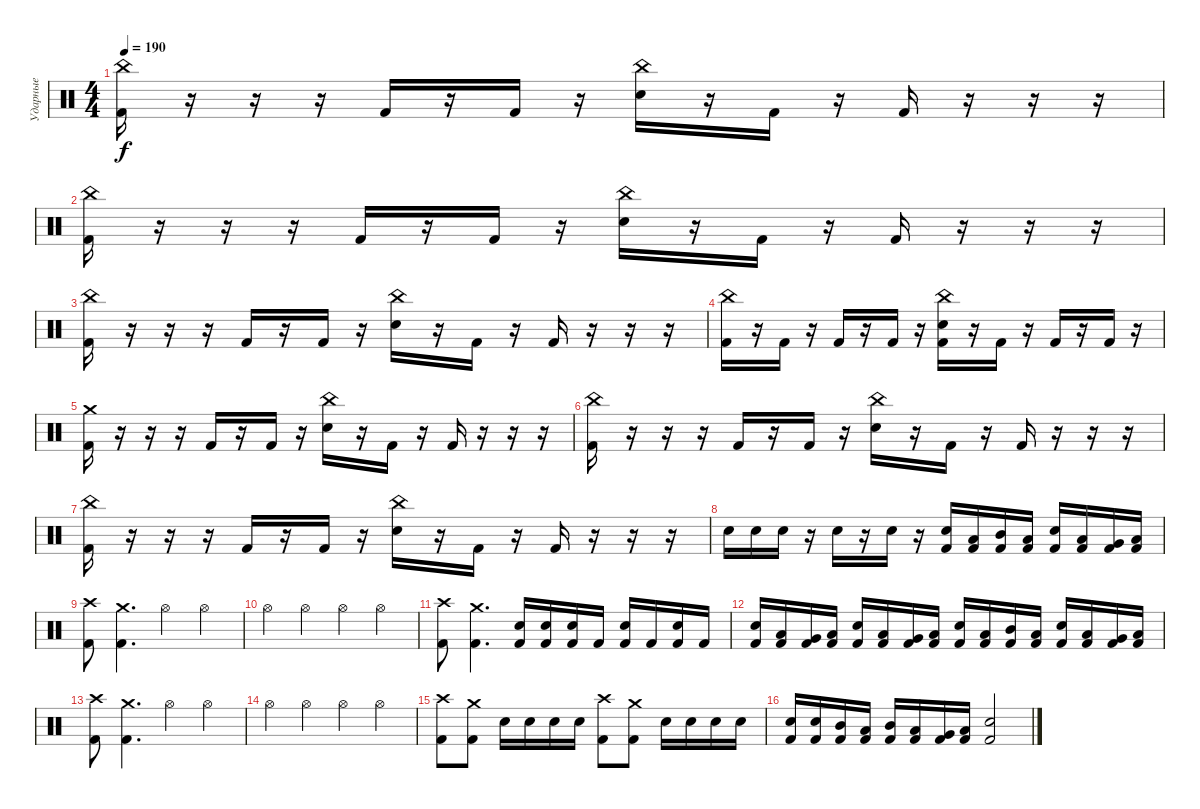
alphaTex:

\track ("Ударные" "Ударные") {instrument percussion}
\staff {score}
\articulation defaults
\ts (4 4)
\tempo 190
\clef neutral
\ks c
("China (hit)" "Kick (hit) 2").16{dy f} r.16 r.16 r.16 "Kick (hit) 2".16 r.16 "Kick (hit) 2".16 r.16 ("China (hit)" "Snare (hit) 2").16 r.16 "Kick (hit) 2".16 r.16 "Kick (hit) 2".16 r.16 r.16 r.16 |
("China (hit)" "Kick (hit) 2").16 r.16 r.16 r.16 "Kick (hit) 2".16 r.16 "Kick (hit) 2".16 r.16 ("China (hit)" "Snare (hit) 2").16 r.16 "Kick (hit) 2".16 r.16 "Kick (hit) 2".16 r.16 r.16 r.16 |
("China (hit)" "Kick (hit) 2").16 r.16 r.16 r.16 "Kick (hit) 2".16 r.16 "Kick (hit) 2".16 r.16 ("China (hit)" "Snare (hit) 2").16 r.16 "Kick (hit) 2".16 r.16 "Kick (hit) 2".16 r.16 r.16 r.16 |
("China (hit)" "Kick (hit) 2").16 r.16 "Kick (hit) 2".16 r.16 "Kick (hit) 2".16 r.16 "Kick (hit) 2".16 r.16 ("Snare (hit) 2" "China (hit)" "Kick (hit) 2").16 r.16 "Kick (hit) 2".16 r.16 "Kick (hit) 2".16 r.16 "Kick (hit) 2".16 r.16 |
("Crash medium (hit)" "Kick (hit) 2").16 r.16 r.16 r.16 "Kick (hit) 2".16 r.16 "Kick (hit) 2".16 r.16 ("China (hit)" "Snare (hit) 2").16 r.16 "Kick (hit) 2".16 r.16 "Kick (hit) 2".16 r.16 r.16 r.16 |
("China (hit)" "Kick (hit) 2").16 r.16 r.16 r.16 "Kick (hit) 2".16 r.16 "Kick (hit) 2".16 r.16 ("China (hit)" "Snare (hit) 2").16 r.16 "Kick (hit) 2".16 r.16 "Kick (hit) 2".16 r.16 r.16 r.16 |
("China (hit)" "Kick (hit) 2").16 r.16 r.16 r.16 "Kick (hit) 2".16 r.16 "Kick (hit) 2".16 r.16 ("China (hit)" "Snare (hit) 2").16 r.16 "Kick (hit) 2".16 r.16 "Kick (hit) 2".16 r.16 r.16 r.16 |
"Snare (hit) 2".16 "Snare (hit) 2".16 "Snare (hit) 2".16 r.16 "Snare (hit) 2".16 r.16 "Snare (hit) 2".16 r.16 ("Snare (hit) 2" "Kick (hit) 2").16 ("Low Tom (hit)" "Kick (hit) 2").16 ("Mid Tom (hit)" "Kick (hit) 2").16 ("Low Tom (hit)" "Kick (hit) 2").16 ("Snare (hit) 2" "Kick (hit) 2").16 ("Low Tom (hit)" "Kick (hit) 2").16 ("Very Low Tom (hit)" "Kick (hit) 2").16 ("Low Floor Tom (hit)" "Kick (hit) 2").16 |
("Kick (hit) 2" "Crash high (hit)").8 ("Crash medium (hit)" "Kick (hit) 2").4{d} "Hi-Hat (open)".4 "Hi-Hat (open)".4 |
"Hi-Hat (open)".4 "Hi-Hat (open)".4 "Hi-Hat (open)".4 "Hi-Hat (open)".4 |
("Kick (hit) 2" "Crash high (hit)").8 ("Crash medium (hit)" "Kick (hit) 2").4{d} ("Snare (hit) 2" "Kick (hit) 2").16 ("Snare (hit) 2" "Kick (hit) 2").16 ("Snare (hit) 2" "Kick (hit) 2").16 "Kick (hit) 2".16 ("Snare (hit) 2" "Kick (hit) 2").16 "Kick (hit) 2".16 ("Snare (hit) 2" "Kick (hit) 2").16 "Kick (hit) 2".16 |
("Snare (hit) 2" "Kick (hit) 2").16 ("Low Tom (hit)" "Kick (hit) 2").16 ("Very Low Tom (hit)" "Kick (hit) 2").16 ("Low Floor Tom (hit)" "Kick (hit) 2").16 ("Snare (hit) 2" "Kick (hit) 2").16 ("Low Floor Tom (hit)" "Kick (hit) 2").16 ("Very Low Tom (hit)" "Kick (hit) 2").16 ("Low Floor Tom (hit)" "Kick (hit) 2").16 ("Snare (hit) 2" "Kick (hit) 2").16 ("Low Tom (hit)" "Kick (hit) 2").16 ("Mid Tom (hit)" "Kick (hit) 2").16 ("Low Tom (hit)" "Kick (hit) 2").16 ("Snare (hit) 2" "Kick (hit) 2").16 ("Low Tom (hit)" "Kick (hit) 2").16 ("Very Low Tom (hit)" "Kick (hit) 2").16 ("Low Floor Tom (hit)" "Kick (hit) 2").16 |
("Kick (hit) 2" "Crash high (hit)").8 ("Crash medium (hit)" "Kick (hit) 2").4{d} "Hi-Hat (open)".4 "Hi-Hat (open)".4 |
"Hi-Hat (open)".4 "Hi-Hat (open)".4 "Hi-Hat (open)".4 "Hi-Hat (open)".4 |
("Kick (hit) 2" "Crash high (hit)").8 ("Crash medium (hit)" "Kick (hit) 2").8 "Snare (hit) 2".16 "Snare (hit) 2".16 "Snare (hit) 2".16 "Snare (hit) 2".16 ("Kick (hit) 2" "Crash high (hit)").8 ("Crash medium (hit)" "Kick (hit) 2").8 "Snare (hit) 2".16 "Snare (hit) 2".16 "Snare (hit) 2".16 "Snare (hit) 2".16 |
("Snare (hit) 2" "Kick (hit) 2").16 ("Snare (hit) 2" "Kick (hit) 2").16 ("Mid Tom (hit)" "Kick (hit) 2").16 ("Low Tom (hit)" "Kick (hit) 2").16 ("Mid Tom (hit)" "Kick (hit) 2").16 ("Low Tom (hit)" "Kick (hit) 2").16 ("Very Low Tom (hit)" "Kick (hit) 2").16 ("Low Floor Tom (hit)" "Kick (hit) 2").16 ("Snare (hit) 2" "Kick (hit) 2").2
